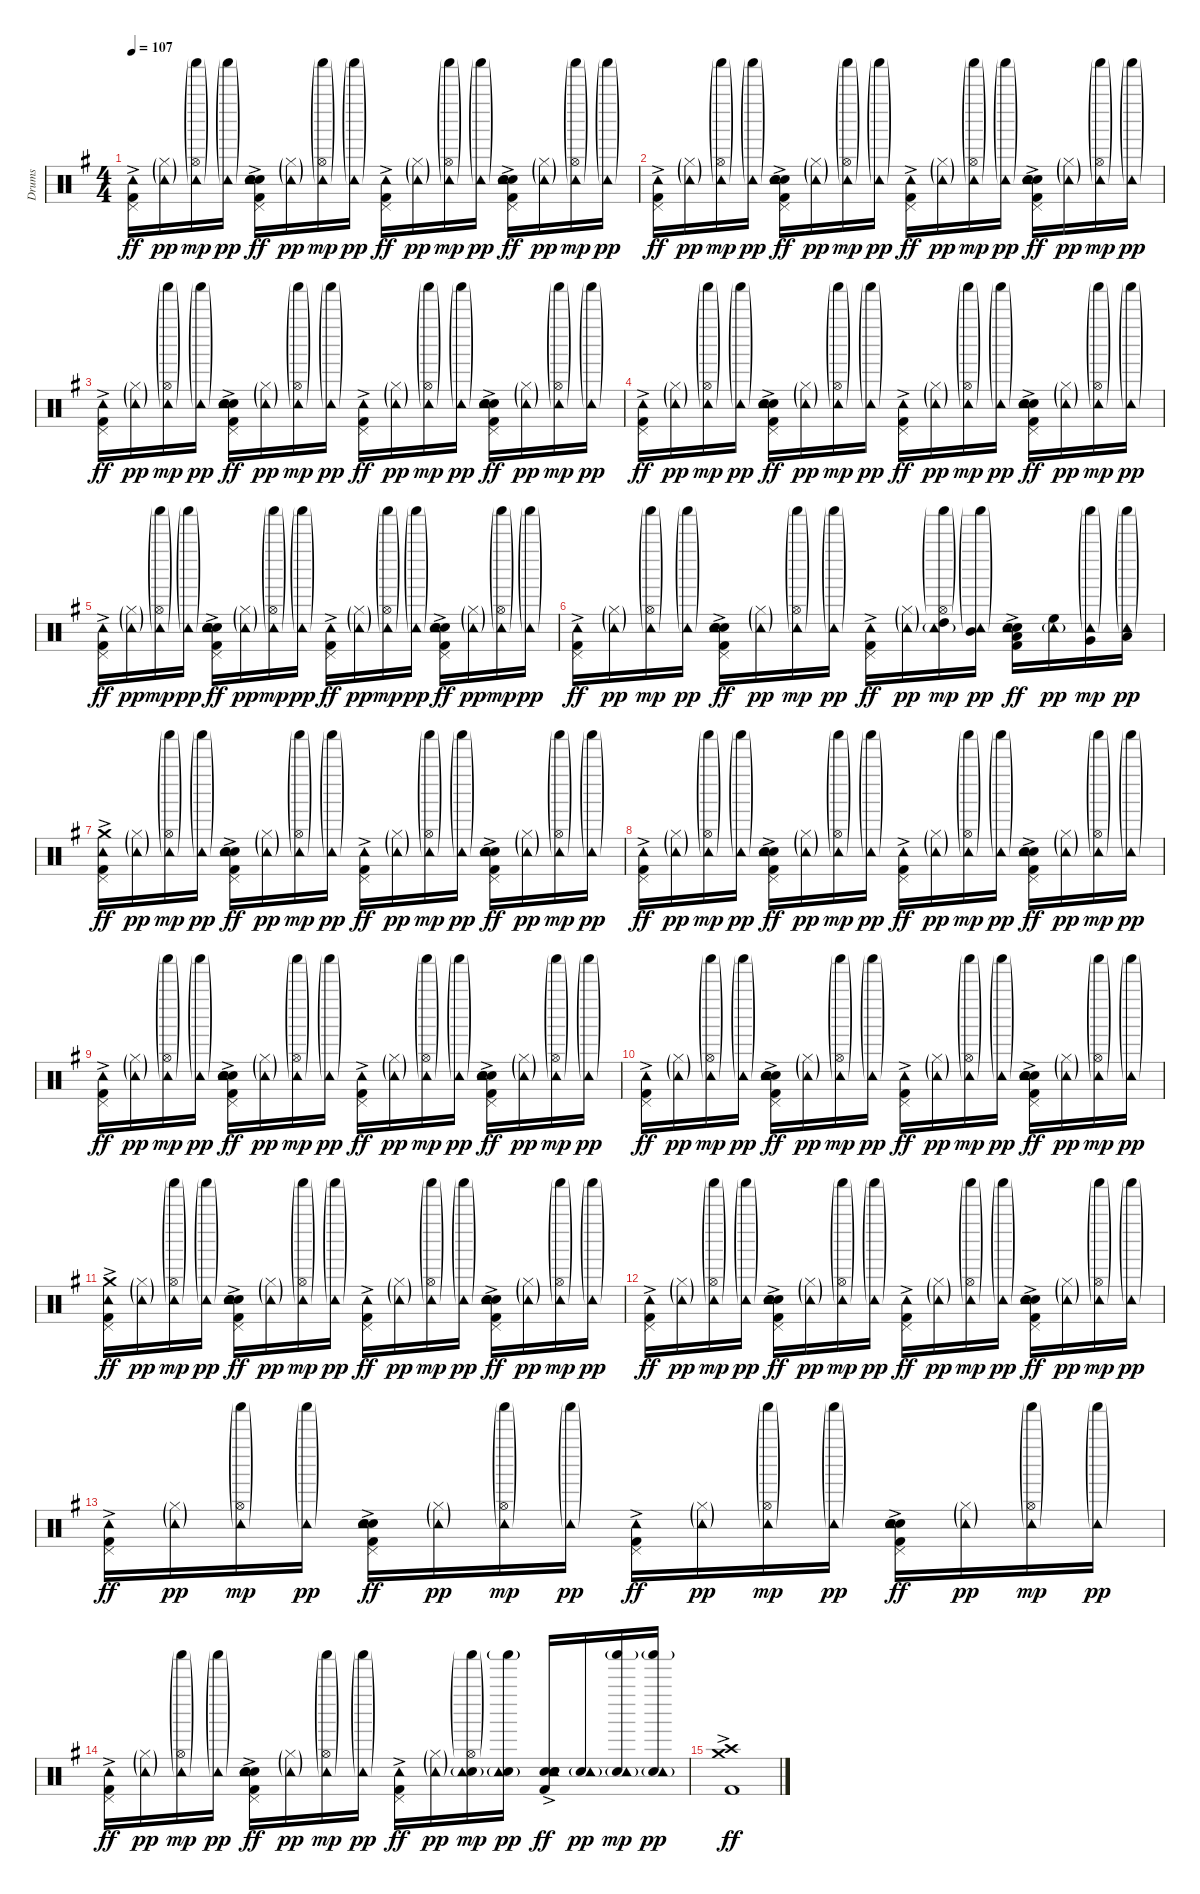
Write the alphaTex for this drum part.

\track ("Drums" "Drums") {instrument percussion}
\staff {score}
\articulation defaults
\ts (4 4)
\tempo 107
\clef neutral
\ks g
("Kick (hit) 2"{ac} "Pedal Hi-Hat (hit)" "Tambourine (hit)").16{dy ff} ("Hi-Hat (closed)"{g} "Tambourine (hit)"{g}).16{dy pp} ("Shaker (hit)"{g} "Hi-Hat (open)"{g} "Tambourine (hit)"{g}).16{dy mp} ("Shaker (hit)"{g} "Tambourine (hit)"{g}).16{dy pp} ("Kick (hit) 2"{ac} "Electric Snare (hit)"{ac} "Snare (hit) 2" "Hand Clap (hit)" "Pedal Hi-Hat (hit)" "Tambourine (hit)").16{dy ff} ("Hi-Hat (closed)"{g} "Tambourine (hit)"{g}).16{dy pp} ("Shaker (hit)"{g} "Hi-Hat (open)"{g} "Tambourine (hit)"{g}).16{dy mp} ("Shaker (hit)"{g} "Tambourine (hit)"{g}).16{dy pp} ("Kick (hit) 2"{ac} "Pedal Hi-Hat (hit)" "Tambourine (hit)").16{dy ff} ("Hi-Hat (closed)"{g} "Tambourine (hit)"{g}).16{dy pp} ("Shaker (hit)"{g} "Hi-Hat (open)"{g} "Tambourine (hit)"{g}).16{dy mp} ("Shaker (hit)"{g} "Tambourine (hit)"{g}).16{dy pp} ("Kick (hit) 2"{ac} "Electric Snare (hit)"{ac} "Snare (hit) 2" "Hand Clap (hit)" "Pedal Hi-Hat (hit)" "Tambourine (hit)").16{dy ff} ("Hi-Hat (closed)"{g} "Tambourine (hit)"{g}).16{dy pp} ("Shaker (hit)"{g} "Hi-Hat (open)"{g} "Tambourine (hit)"{g}).16{dy mp} ("Shaker (hit)"{g} "Tambourine (hit)"{g}).16{dy pp} |
("Kick (hit) 2"{ac} "Pedal Hi-Hat (hit)" "Tambourine (hit)").16{dy ff} ("Hi-Hat (closed)"{g} "Tambourine (hit)"{g}).16{dy pp} ("Shaker (hit)"{g} "Hi-Hat (open)"{g} "Tambourine (hit)"{g}).16{dy mp} ("Shaker (hit)"{g} "Tambourine (hit)"{g}).16{dy pp} ("Kick (hit) 2"{ac} "Electric Snare (hit)"{ac} "Snare (hit) 2" "Hand Clap (hit)" "Pedal Hi-Hat (hit)" "Tambourine (hit)").16{dy ff} ("Hi-Hat (closed)"{g} "Tambourine (hit)"{g}).16{dy pp} ("Shaker (hit)"{g} "Hi-Hat (open)"{g} "Tambourine (hit)"{g}).16{dy mp} ("Shaker (hit)"{g} "Tambourine (hit)"{g}).16{dy pp} ("Kick (hit) 2"{ac} "Pedal Hi-Hat (hit)" "Tambourine (hit)").16{dy ff} ("Hi-Hat (closed)"{g} "Tambourine (hit)"{g}).16{dy pp} ("Shaker (hit)"{g} "Hi-Hat (open)"{g} "Tambourine (hit)"{g}).16{dy mp} ("Shaker (hit)"{g} "Tambourine (hit)"{g}).16{dy pp} ("Kick (hit) 2"{ac} "Electric Snare (hit)"{ac} "Snare (hit) 2" "Hand Clap (hit)" "Pedal Hi-Hat (hit)" "Tambourine (hit)").16{dy ff} ("Hi-Hat (closed)"{g} "Tambourine (hit)"{g}).16{dy pp} ("Shaker (hit)"{g} "Hi-Hat (open)"{g} "Tambourine (hit)"{g}).16{dy mp} ("Shaker (hit)"{g} "Tambourine (hit)"{g}).16{dy pp} |
("Kick (hit) 2"{ac} "Pedal Hi-Hat (hit)" "Tambourine (hit)").16{dy ff} ("Hi-Hat (closed)"{g} "Tambourine (hit)"{g}).16{dy pp} ("Shaker (hit)"{g} "Hi-Hat (open)"{g} "Tambourine (hit)"{g}).16{dy mp} ("Shaker (hit)"{g} "Tambourine (hit)"{g}).16{dy pp} ("Kick (hit) 2"{ac} "Electric Snare (hit)"{ac} "Snare (hit) 2" "Hand Clap (hit)" "Pedal Hi-Hat (hit)" "Tambourine (hit)").16{dy ff} ("Hi-Hat (closed)"{g} "Tambourine (hit)"{g}).16{dy pp} ("Shaker (hit)"{g} "Hi-Hat (open)"{g} "Tambourine (hit)"{g}).16{dy mp} ("Shaker (hit)"{g} "Tambourine (hit)"{g}).16{dy pp} ("Kick (hit) 2"{ac} "Pedal Hi-Hat (hit)" "Tambourine (hit)").16{dy ff} ("Hi-Hat (closed)"{g} "Tambourine (hit)"{g}).16{dy pp} ("Shaker (hit)"{g} "Hi-Hat (open)"{g} "Tambourine (hit)"{g}).16{dy mp} ("Shaker (hit)"{g} "Tambourine (hit)"{g}).16{dy pp} ("Kick (hit) 2"{ac} "Electric Snare (hit)"{ac} "Snare (hit) 2" "Hand Clap (hit)" "Pedal Hi-Hat (hit)" "Tambourine (hit)").16{dy ff} ("Hi-Hat (closed)"{g} "Tambourine (hit)"{g}).16{dy pp} ("Shaker (hit)"{g} "Hi-Hat (open)"{g} "Tambourine (hit)"{g}).16{dy mp} ("Shaker (hit)"{g} "Tambourine (hit)"{g}).16{dy pp} |
("Kick (hit) 2"{ac} "Pedal Hi-Hat (hit)" "Tambourine (hit)").16{dy ff} ("Hi-Hat (closed)"{g} "Tambourine (hit)"{g}).16{dy pp} ("Shaker (hit)"{g} "Hi-Hat (open)"{g} "Tambourine (hit)"{g}).16{dy mp} ("Shaker (hit)"{g} "Tambourine (hit)"{g}).16{dy pp} ("Kick (hit) 2"{ac} "Electric Snare (hit)"{ac} "Snare (hit) 2" "Hand Clap (hit)" "Pedal Hi-Hat (hit)" "Tambourine (hit)").16{dy ff} ("Hi-Hat (closed)"{g} "Tambourine (hit)"{g}).16{dy pp} ("Shaker (hit)"{g} "Hi-Hat (open)"{g} "Tambourine (hit)"{g}).16{dy mp} ("Shaker (hit)"{g} "Tambourine (hit)"{g}).16{dy pp} ("Kick (hit) 2"{ac} "Pedal Hi-Hat (hit)" "Tambourine (hit)").16{dy ff} ("Hi-Hat (closed)"{g} "Tambourine (hit)"{g}).16{dy pp} ("Shaker (hit)"{g} "Hi-Hat (open)"{g} "Tambourine (hit)"{g}).16{dy mp} ("Shaker (hit)"{g} "Tambourine (hit)"{g}).16{dy pp} ("Kick (hit) 2"{ac} "Electric Snare (hit)"{ac} "Snare (hit) 2" "Hand Clap (hit)" "Pedal Hi-Hat (hit)" "Tambourine (hit)").16{dy ff} ("Hi-Hat (closed)"{g} "Tambourine (hit)"{g}).16{dy pp} ("Shaker (hit)"{g} "Hi-Hat (open)"{g} "Tambourine (hit)"{g}).16{dy mp} ("Shaker (hit)"{g} "Tambourine (hit)"{g}).16{dy pp} |
("Kick (hit) 2"{ac} "Pedal Hi-Hat (hit)" "Tambourine (hit)").16{dy ff} ("Hi-Hat (closed)"{g} "Tambourine (hit)"{g}).16{dy pp} ("Shaker (hit)"{g} "Hi-Hat (open)"{g} "Tambourine (hit)"{g}).16{dy mp} ("Shaker (hit)"{g} "Tambourine (hit)"{g}).16{dy pp} ("Kick (hit) 2"{ac} "Electric Snare (hit)"{ac} "Snare (hit) 2" "Hand Clap (hit)" "Pedal Hi-Hat (hit)" "Tambourine (hit)").16{dy ff} ("Hi-Hat (closed)"{g} "Tambourine (hit)"{g}).16{dy pp} ("Shaker (hit)"{g} "Hi-Hat (open)"{g} "Tambourine (hit)"{g}).16{dy mp} ("Shaker (hit)"{g} "Tambourine (hit)"{g}).16{dy pp} ("Kick (hit) 2"{ac} "Pedal Hi-Hat (hit)" "Tambourine (hit)").16{dy ff} ("Hi-Hat (closed)"{g} "Tambourine (hit)"{g}).16{dy pp} ("Shaker (hit)"{g} "Hi-Hat (open)"{g} "Tambourine (hit)"{g}).16{dy mp} ("Shaker (hit)"{g} "Tambourine (hit)"{g}).16{dy pp} ("Kick (hit) 2"{ac} "Electric Snare (hit)"{ac} "Snare (hit) 2" "Hand Clap (hit)" "Pedal Hi-Hat (hit)" "Tambourine (hit)").16{dy ff} ("Hi-Hat (closed)"{g} "Tambourine (hit)"{g}).16{dy pp} ("Shaker (hit)"{g} "Hi-Hat (open)"{g} "Tambourine (hit)"{g}).16{dy mp} ("Shaker (hit)"{g} "Tambourine (hit)"{g}).16{dy pp} |
("Kick (hit) 2"{ac} "Pedal Hi-Hat (hit)" "Tambourine (hit)").16{dy ff} ("Hi-Hat (closed)"{g} "Tambourine (hit)"{g}).16{dy pp} ("Shaker (hit)"{g} "Hi-Hat (open)"{g} "Tambourine (hit)"{g}).16{dy mp} ("Shaker (hit)"{g} "Tambourine (hit)"{g}).16{dy pp} ("Kick (hit) 2"{ac} "Electric Snare (hit)"{ac} "Snare (hit) 2" "Hand Clap (hit)" "Pedal Hi-Hat (hit)" "Tambourine (hit)").16{dy ff} ("Hi-Hat (closed)"{g} "Tambourine (hit)"{g}).16{dy pp} ("Shaker (hit)"{g} "Hi-Hat (open)"{g} "Tambourine (hit)"{g}).16{dy mp} ("Shaker (hit)"{g} "Tambourine (hit)"{g}).16{dy pp} ("Kick (hit) 2"{ac} "Pedal Hi-Hat (hit)" "Tambourine (hit)").16{dy ff} ("Hi-Hat (closed)"{g} "Tambourine (hit)"{g}).16{dy pp} ("High Tom (hit)" "Shaker (hit)"{g} "Hi-Hat (open)"{g} "Tambourine (hit)"{g}).16{dy mp} ("Mid Tom (hit)" "Shaker (hit)"{g} "Tambourine (hit)"{g}).16{dy pp} ("Kick (hit) 2"{ac} "Electric Snare (hit)"{ac} "Low Tom (hit)" "Hand Clap (hit)" "Tambourine (hit)").16{dy ff} ("High Floor Tom (hit)" "Tambourine (hit)"{g}).16{dy pp} ("Very Low Tom (hit)" "Shaker (hit)"{g} "Tambourine (hit)"{g}).16{dy mp} ("Low Floor Tom (hit)" "Shaker (hit)"{g} "Tambourine (hit)"{g}).16{dy pp} |
("Kick (hit) 2"{ac} "Crash medium (hit)" "Pedal Hi-Hat (hit)" "Tambourine (hit)").16{dy ff} ("Hi-Hat (closed)"{g} "Tambourine (hit)"{g}).16{dy pp} ("Shaker (hit)"{g} "Hi-Hat (open)"{g} "Tambourine (hit)"{g}).16{dy mp} ("Shaker (hit)"{g} "Tambourine (hit)"{g}).16{dy pp} ("Kick (hit) 2"{ac} "Electric Snare (hit)"{ac} "Snare (hit) 2" "Hand Clap (hit)" "Pedal Hi-Hat (hit)" "Tambourine (hit)").16{dy ff} ("Hi-Hat (closed)"{g} "Tambourine (hit)"{g}).16{dy pp} ("Shaker (hit)"{g} "Hi-Hat (open)"{g} "Tambourine (hit)"{g}).16{dy mp} ("Shaker (hit)"{g} "Tambourine (hit)"{g}).16{dy pp} ("Kick (hit) 2"{ac} "Pedal Hi-Hat (hit)" "Tambourine (hit)").16{dy ff} ("Hi-Hat (closed)"{g} "Tambourine (hit)"{g}).16{dy pp} ("Shaker (hit)"{g} "Hi-Hat (open)"{g} "Tambourine (hit)"{g}).16{dy mp} ("Shaker (hit)"{g} "Tambourine (hit)"{g}).16{dy pp} ("Kick (hit) 2"{ac} "Electric Snare (hit)"{ac} "Snare (hit) 2" "Hand Clap (hit)" "Pedal Hi-Hat (hit)" "Tambourine (hit)").16{dy ff} ("Hi-Hat (closed)"{g} "Tambourine (hit)"{g}).16{dy pp} ("Shaker (hit)"{g} "Hi-Hat (open)"{g} "Tambourine (hit)"{g}).16{dy mp} ("Shaker (hit)"{g} "Tambourine (hit)"{g}).16{dy pp} |
("Kick (hit) 2"{ac} "Pedal Hi-Hat (hit)" "Tambourine (hit)").16{dy ff} ("Hi-Hat (closed)"{g} "Tambourine (hit)"{g}).16{dy pp} ("Shaker (hit)"{g} "Hi-Hat (open)"{g} "Tambourine (hit)"{g}).16{dy mp} ("Shaker (hit)"{g} "Tambourine (hit)"{g}).16{dy pp} ("Kick (hit) 2"{ac} "Electric Snare (hit)"{ac} "Snare (hit) 2" "Hand Clap (hit)" "Pedal Hi-Hat (hit)" "Tambourine (hit)").16{dy ff} ("Hi-Hat (closed)"{g} "Tambourine (hit)"{g}).16{dy pp} ("Shaker (hit)"{g} "Hi-Hat (open)"{g} "Tambourine (hit)"{g}).16{dy mp} ("Shaker (hit)"{g} "Tambourine (hit)"{g}).16{dy pp} ("Kick (hit) 2"{ac} "Pedal Hi-Hat (hit)" "Tambourine (hit)").16{dy ff} ("Hi-Hat (closed)"{g} "Tambourine (hit)"{g}).16{dy pp} ("Shaker (hit)"{g} "Hi-Hat (open)"{g} "Tambourine (hit)"{g}).16{dy mp} ("Shaker (hit)"{g} "Tambourine (hit)"{g}).16{dy pp} ("Kick (hit) 2"{ac} "Electric Snare (hit)"{ac} "Snare (hit) 2" "Hand Clap (hit)" "Pedal Hi-Hat (hit)" "Tambourine (hit)").16{dy ff} ("Hi-Hat (closed)"{g} "Tambourine (hit)"{g}).16{dy pp} ("Shaker (hit)"{g} "Hi-Hat (open)"{g} "Tambourine (hit)"{g}).16{dy mp} ("Shaker (hit)"{g} "Tambourine (hit)"{g}).16{dy pp} |
("Kick (hit) 2"{ac} "Pedal Hi-Hat (hit)" "Tambourine (hit)").16{dy ff} ("Hi-Hat (closed)"{g} "Tambourine (hit)"{g}).16{dy pp} ("Shaker (hit)"{g} "Hi-Hat (open)"{g} "Tambourine (hit)"{g}).16{dy mp} ("Shaker (hit)"{g} "Tambourine (hit)"{g}).16{dy pp} ("Kick (hit) 2"{ac} "Electric Snare (hit)"{ac} "Snare (hit) 2" "Hand Clap (hit)" "Pedal Hi-Hat (hit)" "Tambourine (hit)").16{dy ff} ("Hi-Hat (closed)"{g} "Tambourine (hit)"{g}).16{dy pp} ("Shaker (hit)"{g} "Hi-Hat (open)"{g} "Tambourine (hit)"{g}).16{dy mp} ("Shaker (hit)"{g} "Tambourine (hit)"{g}).16{dy pp} ("Kick (hit) 2"{ac} "Pedal Hi-Hat (hit)" "Tambourine (hit)").16{dy ff} ("Hi-Hat (closed)"{g} "Tambourine (hit)"{g}).16{dy pp} ("Shaker (hit)"{g} "Hi-Hat (open)"{g} "Tambourine (hit)"{g}).16{dy mp} ("Shaker (hit)"{g} "Tambourine (hit)"{g}).16{dy pp} ("Kick (hit) 2"{ac} "Electric Snare (hit)"{ac} "Snare (hit) 2" "Hand Clap (hit)" "Pedal Hi-Hat (hit)" "Tambourine (hit)").16{dy ff} ("Hi-Hat (closed)"{g} "Tambourine (hit)"{g}).16{dy pp} ("Shaker (hit)"{g} "Hi-Hat (open)"{g} "Tambourine (hit)"{g}).16{dy mp} ("Shaker (hit)"{g} "Tambourine (hit)"{g}).16{dy pp} |
("Kick (hit) 2"{ac} "Pedal Hi-Hat (hit)" "Tambourine (hit)").16{dy ff} ("Hi-Hat (closed)"{g} "Tambourine (hit)"{g}).16{dy pp} ("Shaker (hit)"{g} "Hi-Hat (open)"{g} "Tambourine (hit)"{g}).16{dy mp} ("Shaker (hit)"{g} "Tambourine (hit)"{g}).16{dy pp} ("Kick (hit) 2"{ac} "Electric Snare (hit)"{ac} "Snare (hit) 2" "Hand Clap (hit)" "Pedal Hi-Hat (hit)" "Tambourine (hit)").16{dy ff} ("Hi-Hat (closed)"{g} "Tambourine (hit)"{g}).16{dy pp} ("Shaker (hit)"{g} "Hi-Hat (open)"{g} "Tambourine (hit)"{g}).16{dy mp} ("Shaker (hit)"{g} "Tambourine (hit)"{g}).16{dy pp} ("Kick (hit) 2"{ac} "Pedal Hi-Hat (hit)" "Tambourine (hit)").16{dy ff} ("Hi-Hat (closed)"{g} "Tambourine (hit)"{g}).16{dy pp} ("Shaker (hit)"{g} "Hi-Hat (open)"{g} "Tambourine (hit)"{g}).16{dy mp} ("Shaker (hit)"{g} "Tambourine (hit)"{g}).16{dy pp} ("Kick (hit) 2"{ac} "Electric Snare (hit)"{ac} "Snare (hit) 2" "Hand Clap (hit)" "Pedal Hi-Hat (hit)" "Tambourine (hit)").16{dy ff} ("Hi-Hat (closed)"{g} "Tambourine (hit)"{g}).16{dy pp} ("Shaker (hit)"{g} "Hi-Hat (open)"{g} "Tambourine (hit)"{g}).16{dy mp} ("Shaker (hit)"{g} "Tambourine (hit)"{g}).16{dy pp} |
("Kick (hit) 2"{ac} "Crash medium (hit)" "Pedal Hi-Hat (hit)" "Tambourine (hit)").16{dy ff} ("Hi-Hat (closed)"{g} "Tambourine (hit)"{g}).16{dy pp} ("Shaker (hit)"{g} "Hi-Hat (open)"{g} "Tambourine (hit)"{g}).16{dy mp} ("Shaker (hit)"{g} "Tambourine (hit)"{g}).16{dy pp} ("Kick (hit) 2"{ac} "Electric Snare (hit)"{ac} "Snare (hit) 2" "Hand Clap (hit)" "Pedal Hi-Hat (hit)" "Tambourine (hit)").16{dy ff} ("Hi-Hat (closed)"{g} "Tambourine (hit)"{g}).16{dy pp} ("Shaker (hit)"{g} "Hi-Hat (open)"{g} "Tambourine (hit)"{g}).16{dy mp} ("Shaker (hit)"{g} "Tambourine (hit)"{g}).16{dy pp} ("Kick (hit) 2"{ac} "Pedal Hi-Hat (hit)" "Tambourine (hit)").16{dy ff} ("Hi-Hat (closed)"{g} "Tambourine (hit)"{g}).16{dy pp} ("Shaker (hit)"{g} "Hi-Hat (open)"{g} "Tambourine (hit)"{g}).16{dy mp} ("Shaker (hit)"{g} "Tambourine (hit)"{g}).16{dy pp} ("Kick (hit) 2"{ac} "Electric Snare (hit)"{ac} "Snare (hit) 2" "Hand Clap (hit)" "Pedal Hi-Hat (hit)" "Tambourine (hit)").16{dy ff} ("Hi-Hat (closed)"{g} "Tambourine (hit)"{g}).16{dy pp} ("Shaker (hit)"{g} "Hi-Hat (open)"{g} "Tambourine (hit)"{g}).16{dy mp} ("Shaker (hit)"{g} "Tambourine (hit)"{g}).16{dy pp} |
("Kick (hit) 2"{ac} "Pedal Hi-Hat (hit)" "Tambourine (hit)").16{dy ff} ("Hi-Hat (closed)"{g} "Tambourine (hit)"{g}).16{dy pp} ("Shaker (hit)"{g} "Hi-Hat (open)"{g} "Tambourine (hit)"{g}).16{dy mp} ("Shaker (hit)"{g} "Tambourine (hit)"{g}).16{dy pp} ("Kick (hit) 2"{ac} "Electric Snare (hit)"{ac} "Snare (hit) 2" "Hand Clap (hit)" "Pedal Hi-Hat (hit)" "Tambourine (hit)").16{dy ff} ("Hi-Hat (closed)"{g} "Tambourine (hit)"{g}).16{dy pp} ("Shaker (hit)"{g} "Hi-Hat (open)"{g} "Tambourine (hit)"{g}).16{dy mp} ("Shaker (hit)"{g} "Tambourine (hit)"{g}).16{dy pp} ("Kick (hit) 2"{ac} "Pedal Hi-Hat (hit)" "Tambourine (hit)").16{dy ff} ("Hi-Hat (closed)"{g} "Tambourine (hit)"{g}).16{dy pp} ("Shaker (hit)"{g} "Hi-Hat (open)"{g} "Tambourine (hit)"{g}).16{dy mp} ("Shaker (hit)"{g} "Tambourine (hit)"{g}).16{dy pp} ("Kick (hit) 2"{ac} "Electric Snare (hit)"{ac} "Snare (hit) 2" "Hand Clap (hit)" "Pedal Hi-Hat (hit)" "Tambourine (hit)").16{dy ff} ("Hi-Hat (closed)"{g} "Tambourine (hit)"{g}).16{dy pp} ("Shaker (hit)"{g} "Hi-Hat (open)"{g} "Tambourine (hit)"{g}).16{dy mp} ("Shaker (hit)"{g} "Tambourine (hit)"{g}).16{dy pp} |
("Kick (hit) 2"{ac} "Pedal Hi-Hat (hit)" "Tambourine (hit)").16{dy ff} ("Hi-Hat (closed)"{g} "Tambourine (hit)"{g}).16{dy pp} ("Shaker (hit)"{g} "Hi-Hat (open)"{g} "Tambourine (hit)"{g}).16{dy mp} ("Shaker (hit)"{g} "Tambourine (hit)"{g}).16{dy pp} ("Kick (hit) 2"{ac} "Electric Snare (hit)"{ac} "Snare (hit) 2" "Hand Clap (hit)" "Pedal Hi-Hat (hit)" "Tambourine (hit)").16{dy ff} ("Hi-Hat (closed)"{g} "Tambourine (hit)"{g}).16{dy pp} ("Shaker (hit)"{g} "Hi-Hat (open)"{g} "Tambourine (hit)"{g}).16{dy mp} ("Shaker (hit)"{g} "Tambourine (hit)"{g}).16{dy pp} ("Kick (hit) 2"{ac} "Pedal Hi-Hat (hit)" "Tambourine (hit)").16{dy ff} ("Hi-Hat (closed)"{g} "Tambourine (hit)"{g}).16{dy pp} ("Shaker (hit)"{g} "Hi-Hat (open)"{g} "Tambourine (hit)"{g}).16{dy mp} ("Shaker (hit)"{g} "Tambourine (hit)"{g}).16{dy pp} ("Kick (hit) 2"{ac} "Electric Snare (hit)"{ac} "Snare (hit) 2" "Hand Clap (hit)" "Pedal Hi-Hat (hit)" "Tambourine (hit)").16{dy ff} ("Hi-Hat (closed)"{g} "Tambourine (hit)"{g}).16{dy pp} ("Shaker (hit)"{g} "Hi-Hat (open)"{g} "Tambourine (hit)"{g}).16{dy mp} ("Shaker (hit)"{g} "Tambourine (hit)"{g}).16{dy pp} |
("Kick (hit) 2"{ac} "Pedal Hi-Hat (hit)" "Tambourine (hit)").16{dy ff} ("Hi-Hat (closed)"{g} "Tambourine (hit)"{g}).16{dy pp} ("Shaker (hit)"{g} "Hi-Hat (open)"{g} "Tambourine (hit)"{g}).16{dy mp} ("Shaker (hit)"{g} "Tambourine (hit)"{g}).16{dy pp} ("Kick (hit) 2"{ac} "Electric Snare (hit)"{ac} "Snare (hit) 2" "Hand Clap (hit)" "Pedal Hi-Hat (hit)" "Tambourine (hit)").16{dy ff} ("Hi-Hat (closed)"{g} "Tambourine (hit)"{g}).16{dy pp} ("Shaker (hit)"{g} "Hi-Hat (open)"{g} "Tambourine (hit)"{g}).16{dy mp} ("Shaker (hit)"{g} "Tambourine (hit)"{g}).16{dy pp} ("Kick (hit) 2"{ac} "Pedal Hi-Hat (hit)" "Tambourine (hit)").16{dy ff} ("Hi-Hat (closed)"{g} "Tambourine (hit)"{g}).16{dy pp} ("Snare (hit) 2" "Shaker (hit)"{g} "Hi-Hat (open)"{g} "Tambourine (hit)"{g}).16{dy mp} ("Snare (hit) 2" "Shaker (hit)"{g} "Tambourine (hit)"{g}).16{dy pp} ("Kick (hit) 2"{ac} "Electric Snare (hit)"{ac} "Snare (hit) 2" "Hand Clap (hit)" "Tambourine (hit)").16{dy ff} ("Snare (hit) 2" "Tambourine (hit)"{g}).16{dy pp} ("Snare (hit) 2" "Shaker (hit)"{g} "Tambourine (hit)"{g}).16{dy mp} ("Snare (hit) 2" "Shaker (hit)"{g} "Tambourine (hit)"{g}).16{dy pp} |
("Kick (hit) 2"{ac} "Crash medium (hit)" "Crash high (hit)").1{dy ff}
